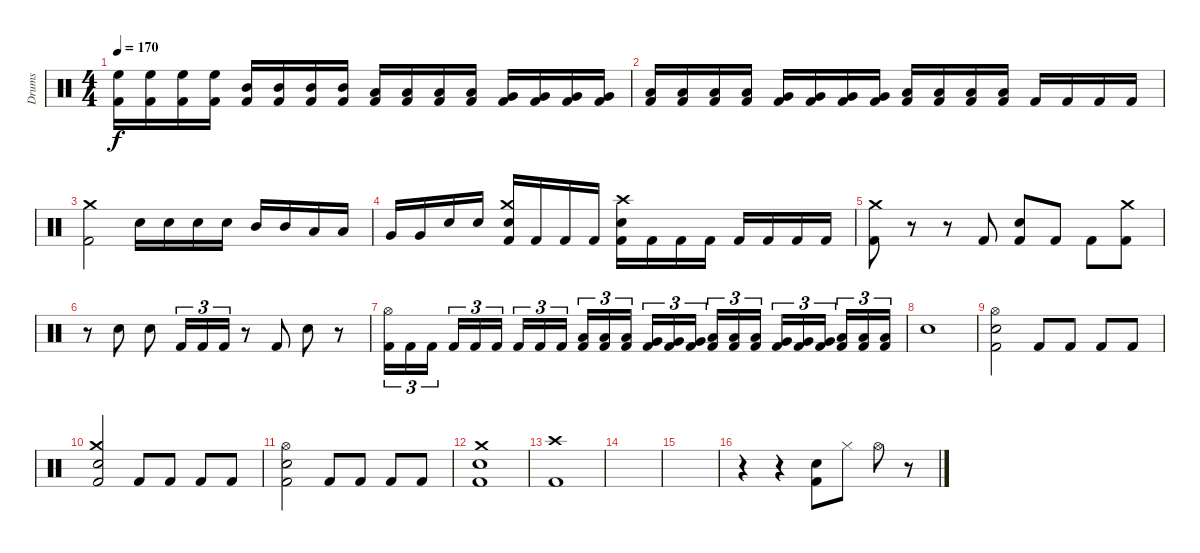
\track ("Drums" "Drums") {instrument percussion}
\staff {score}
\articulation defaults
\ts (4 4)
\tempo 170
\clef neutral
\ks c
("High Floor Tom (hit)" "Kick (hit) 2").16{dy f} ("High Floor Tom (hit)" "Kick (hit) 2").16 ("High Floor Tom (hit)" "Kick (hit) 2").16 ("High Floor Tom (hit)" "Kick (hit) 2").16 ("Mid Tom (hit)" "Kick (hit) 2").16 ("Mid Tom (hit)" "Kick (hit) 2").16 ("Mid Tom (hit)" "Kick (hit) 2").16 ("Mid Tom (hit)" "Kick (hit) 2").16 ("Low Tom (hit)" "Kick (hit) 2").16 ("Low Tom (hit)" "Kick (hit) 2").16 ("Low Tom (hit)" "Kick (hit) 2").16 ("Low Tom (hit)" "Kick (hit) 2").16 ("Very Low Tom (hit)" "Kick (hit) 2").16 ("Very Low Tom (hit)" "Kick (hit) 2").16 ("Very Low Tom (hit)" "Kick (hit) 2").16 ("Very Low Tom (hit)" "Kick (hit) 2").16 |
("Low Floor Tom (hit)" "Kick (hit) 2").16 ("Low Floor Tom (hit)" "Kick (hit) 2").16 ("Low Floor Tom (hit)" "Kick (hit) 2").16 ("Low Floor Tom (hit)" "Kick (hit) 2").16 ("Very Low Tom (hit)" "Kick (hit) 2").16 ("Very Low Tom (hit)" "Kick (hit) 2").16 ("Very Low Tom (hit)" "Kick (hit) 2").16 ("Very Low Tom (hit)" "Kick (hit) 2").16 ("Low Tom (hit)" "Kick (hit) 2").16 ("Low Tom (hit)" "Kick (hit) 2").16 ("Low Tom (hit)" "Kick (hit) 2").16 ("Low Tom (hit)" "Kick (hit) 2").16 "Kick (hit) 2".16 "Kick (hit) 2".16 "Kick (hit) 2".16 "Kick (hit) 2".16 |
("Crash medium (hit)" "Kick (hit) 2").2 "Snare (hit) 2".16 "Snare (hit) 2".16 "Snare (hit) 2".16 "Snare (hit) 2".16 "Mid Tom (hit)".16 "Mid Tom (hit)".16 "Low Tom (hit)".16 "Low Tom (hit)".16 |
"Very Low Tom (hit)".16 "Very Low Tom (hit)".16 "Snare (hit) 2".16 "Snare (hit) 2".16 ("Crash medium (hit)" "Snare (hit) 2" "Kick (hit) 2").16 "Kick (hit) 2".16 "Kick (hit) 2".16 "Kick (hit) 2".16 ("Crash high (hit)" "Snare (hit) 2" "Kick (hit) 2").16 "Kick (hit) 2".16 "Kick (hit) 2".16 "Kick (hit) 2".16 "Kick (hit) 2".16 "Kick (hit) 2".16 "Kick (hit) 2".16 "Kick (hit) 2".16 |
("Crash medium (hit)" "Kick (hit) 2").8 r.8 r.8 "Kick (hit) 2".8 ("Snare (hit) 2" "Kick (hit) 2").8 "Kick (hit) 2".8 "Kick (hit) 2".8 ("Crash medium (hit)" "Kick (hit) 2").8 |
r.8 "Snare (hit) 2".8 "Snare (hit) 2".8 "Kick (hit) 2".16{tu (3 2)} "Kick (hit) 2".16{tu (3 2)} "Kick (hit) 2".16{tu (3 2)} r.8 "Kick (hit) 2".8 "Snare (hit) 2".8 r.8 |
("Hi-Hat (open)" "Kick (hit) 2").16{tu (3 2)} "Kick (hit) 2".16{tu (3 2)} "Kick (hit) 2".16{tu (3 2) beam splitsecondary} "Kick (hit) 2".16{tu (3 2)} "Kick (hit) 2".16{tu (3 2)} "Kick (hit) 2".16{tu (3 2)} "Kick (hit) 2".16{tu (3 2)} "Kick (hit) 2".16{tu (3 2)} "Kick (hit) 2".16{tu (3 2) beam splitsecondary} ("Low Floor Tom (hit)" "Kick (hit) 2").16{tu (3 2)} ("Low Floor Tom (hit)" "Kick (hit) 2").16{tu (3 2)} ("Low Floor Tom (hit)" "Kick (hit) 2").16{tu (3 2)} ("Very Low Tom (hit)" "Kick (hit) 2").16{tu (3 2)} ("Very Low Tom (hit)" "Kick (hit) 2").16{tu (3 2)} ("Very Low Tom (hit)" "Kick (hit) 2").16{tu (3 2) beam splitsecondary} ("Low Tom (hit)" "Kick (hit) 2").16{tu (3 2)} ("Low Tom (hit)" "Kick (hit) 2").16{tu (3 2)} ("Low Tom (hit)" "Kick (hit) 2").16{tu (3 2)} ("Very Low Tom (hit)" "Kick (hit) 2").16{tu (3 2)} ("Very Low Tom (hit)" "Kick (hit) 2").16{tu (3 2)} ("Very Low Tom (hit)" "Kick (hit) 2").16{tu (3 2) beam splitsecondary} ("Low Floor Tom (hit)" "Kick (hit) 2").16{tu (3 2)} ("Low Floor Tom (hit)" "Kick (hit) 2").16{tu (3 2)} ("Low Floor Tom (hit)" "Kick (hit) 2").16{tu (3 2)} |
"Snare (hit) 2".1 |
("Hi-Hat (open)" "Snare (hit) 2" "Kick (hit) 2").2 "Kick (hit) 2".8 "Kick (hit) 2".8 "Kick (hit) 2".8 "Kick (hit) 2".8 |
("Crash medium (hit)" "Snare (hit) 2" "Kick (hit) 2").2 "Kick (hit) 2".8 "Kick (hit) 2".8 "Kick (hit) 2".8 "Kick (hit) 2".8 |
("Hi-Hat (open)" "Snare (hit) 2" "Kick (hit) 2").2 "Kick (hit) 2".8 "Kick (hit) 2".8 "Kick (hit) 2".8 "Kick (hit) 2".8 |
("Crash medium (hit)" "Snare (hit) 2" "Kick (hit) 2").1 |
("Crash high (hit)" "Kick (hit) 2").1 |
|
|
r.4 r.4 ("Snare (hit) 2" "Kick (hit) 2").8 "Hi-Hat (closed)".8 "Hi-Hat (open)".8 r.8
